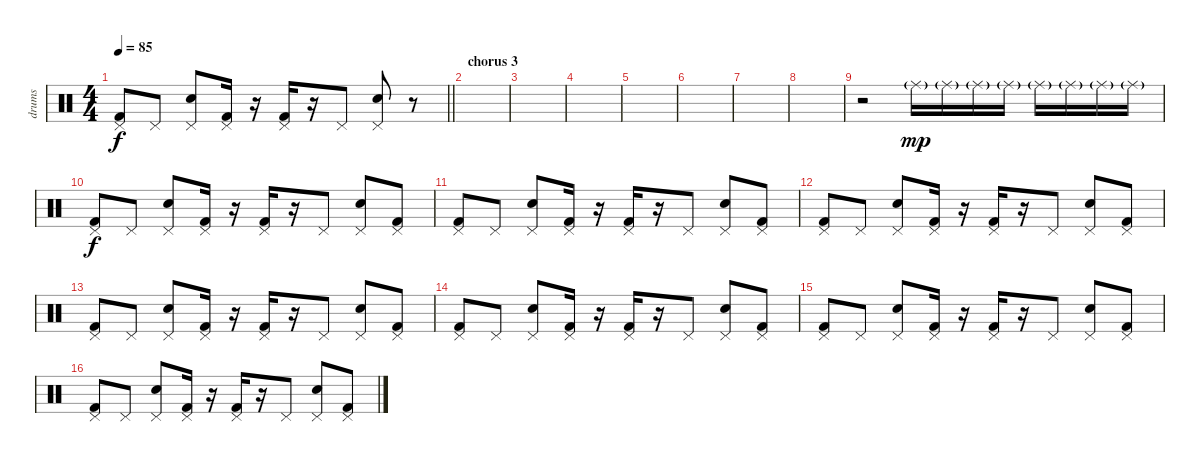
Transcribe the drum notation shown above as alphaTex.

\track ("drums" "drums") {instrument percussion}
\staff {score}
\articulation defaults
\ts (4 4)
\tempo 85
\clef neutral
\barLineRight lightlight
\ks c
("Kick (hit) 2" "Pedal Hi-Hat (hit)").8{dy f} "Pedal Hi-Hat (hit)".8 ("Electric Snare (hit)" "Pedal Hi-Hat (hit)").8 ("Kick (hit) 2" "Pedal Hi-Hat (hit)").16 r.16 ("Kick (hit) 2" "Pedal Hi-Hat (hit)").16 r.16 "Pedal Hi-Hat (hit)".8 ("Electric Snare (hit)" "Pedal Hi-Hat (hit)").8 r.8 |
\section ("" "chorus 3")
|
|
|
|
|
|
|
r.2 "Ride (middle)"{g}.16{dy mp} "Ride (middle)"{g}.16 "Ride (middle)"{g}.16 "Ride (middle)"{g}.16 "Ride (middle)"{g}.16 "Ride (middle)"{g}.16 "Ride (middle)"{g}.16 "Ride (middle)"{g}.16 |
("Kick (hit) 2" "Pedal Hi-Hat (hit)").8{dy f} "Pedal Hi-Hat (hit)".8 ("Electric Snare (hit)" "Pedal Hi-Hat (hit)").8 ("Kick (hit) 2" "Pedal Hi-Hat (hit)").16 r.16 ("Kick (hit) 2" "Pedal Hi-Hat (hit)").16 r.16 "Pedal Hi-Hat (hit)".8 ("Electric Snare (hit)" "Pedal Hi-Hat (hit)").8 ("Kick (hit) 2" "Pedal Hi-Hat (hit)").8 |
("Kick (hit) 2" "Pedal Hi-Hat (hit)").8 "Pedal Hi-Hat (hit)".8 ("Electric Snare (hit)" "Pedal Hi-Hat (hit)").8 ("Kick (hit) 2" "Pedal Hi-Hat (hit)").16 r.16 ("Kick (hit) 2" "Pedal Hi-Hat (hit)").16 r.16 "Pedal Hi-Hat (hit)".8 ("Electric Snare (hit)" "Pedal Hi-Hat (hit)").8 ("Kick (hit) 2" "Pedal Hi-Hat (hit)").8 |
("Kick (hit) 2" "Pedal Hi-Hat (hit)").8 "Pedal Hi-Hat (hit)".8 ("Electric Snare (hit)" "Pedal Hi-Hat (hit)").8 ("Kick (hit) 2" "Pedal Hi-Hat (hit)").16 r.16 ("Kick (hit) 2" "Pedal Hi-Hat (hit)").16 r.16 "Pedal Hi-Hat (hit)".8 ("Electric Snare (hit)" "Pedal Hi-Hat (hit)").8 ("Kick (hit) 2" "Pedal Hi-Hat (hit)").8 |
("Kick (hit) 2" "Pedal Hi-Hat (hit)").8 "Pedal Hi-Hat (hit)".8 ("Electric Snare (hit)" "Pedal Hi-Hat (hit)").8 ("Kick (hit) 2" "Pedal Hi-Hat (hit)").16 r.16 ("Kick (hit) 2" "Pedal Hi-Hat (hit)").16 r.16 "Pedal Hi-Hat (hit)".8 ("Electric Snare (hit)" "Pedal Hi-Hat (hit)").8 ("Kick (hit) 2" "Pedal Hi-Hat (hit)").8 |
("Kick (hit) 2" "Pedal Hi-Hat (hit)").8 "Pedal Hi-Hat (hit)".8 ("Electric Snare (hit)" "Pedal Hi-Hat (hit)").8 ("Kick (hit) 2" "Pedal Hi-Hat (hit)").16 r.16 ("Kick (hit) 2" "Pedal Hi-Hat (hit)").16 r.16 "Pedal Hi-Hat (hit)".8 ("Electric Snare (hit)" "Pedal Hi-Hat (hit)").8 ("Kick (hit) 2" "Pedal Hi-Hat (hit)").8 |
("Kick (hit) 2" "Pedal Hi-Hat (hit)").8 "Pedal Hi-Hat (hit)".8 ("Electric Snare (hit)" "Pedal Hi-Hat (hit)").8 ("Kick (hit) 2" "Pedal Hi-Hat (hit)").16 r.16 ("Kick (hit) 2" "Pedal Hi-Hat (hit)").16 r.16 "Pedal Hi-Hat (hit)".8 ("Electric Snare (hit)" "Pedal Hi-Hat (hit)").8 ("Kick (hit) 2" "Pedal Hi-Hat (hit)").8 |
("Kick (hit) 2" "Pedal Hi-Hat (hit)").8 "Pedal Hi-Hat (hit)".8 ("Electric Snare (hit)" "Pedal Hi-Hat (hit)").8 ("Kick (hit) 2" "Pedal Hi-Hat (hit)").16 r.16 ("Kick (hit) 2" "Pedal Hi-Hat (hit)").16 r.16 "Pedal Hi-Hat (hit)".8 ("Electric Snare (hit)" "Pedal Hi-Hat (hit)").8 ("Kick (hit) 2" "Pedal Hi-Hat (hit)").8
